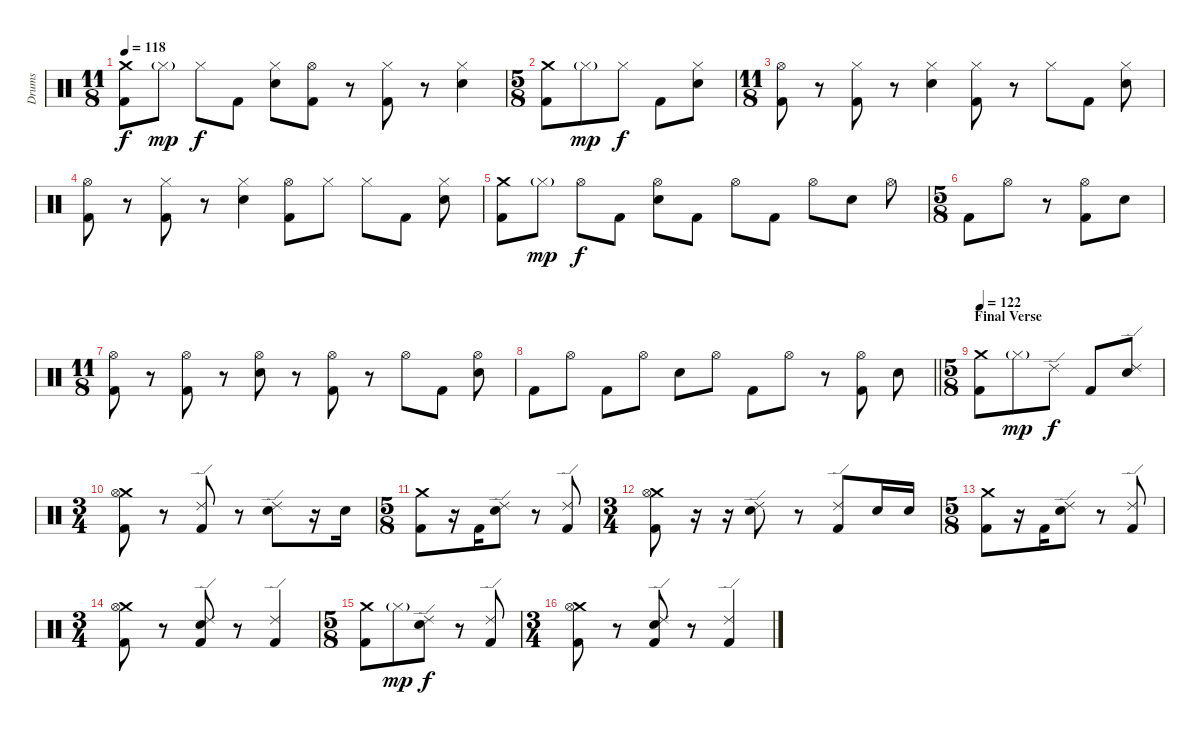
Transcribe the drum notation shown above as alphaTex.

\track ("Drums" "Drums") {instrument percussion}
\staff {score}
\articulation defaults
\ts (11 8)
\tempo 118
\clef neutral
\ks c
("Crash medium (hit)" "Kick (hit) 2").8{dy f} "Hi-Hat (closed)"{g}.8{dy mp} "Hi-Hat (closed)".8{dy f} "Kick (hit) 2".8 ("Hi-Hat (closed)" "Electric Snare (hit)").8 ("Hi-Hat (open)" "Kick (hit) 2").8 r.8 ("Hi-Hat (closed)" "Kick (hit) 2").8 r.8 ("Hi-Hat (closed)" "Electric Snare (hit)").4 |
\ts (5 8)
("Crash medium (hit)" "Kick (hit) 2").8 "Hi-Hat (closed)"{g}.8{dy mp} "Hi-Hat (closed)".8{dy f} "Kick (hit) 2".8 ("Hi-Hat (closed)" "Electric Snare (hit)").8 |
\ts (11 8)
("Hi-Hat (open)" "Kick (hit) 2").8 r.8 ("Hi-Hat (closed)" "Kick (hit) 2").8 r.8 ("Hi-Hat (closed)" "Electric Snare (hit)").4 ("Hi-Hat (closed)" "Kick (hit) 2").8 r.8 "Hi-Hat (closed)".8 "Kick (hit) 2".8 ("Hi-Hat (closed)" "Electric Snare (hit)").8 |
("Hi-Hat (open)" "Kick (hit) 2").8 r.8 ("Hi-Hat (closed)" "Kick (hit) 2").8 r.8 ("Hi-Hat (closed)" "Electric Snare (hit)").4 ("Hi-Hat (open)" "Kick (hit) 2").8 "Hi-Hat (closed)".8 "Hi-Hat (closed)".8 "Kick (hit) 2".8 ("Hi-Hat (closed)" "Electric Snare (hit)").8 |
("Crash medium (hit)" "Kick (hit) 2").8 "Hi-Hat (closed)"{g}.8{dy mp} "Hi-Hat (open)".8{dy f} "Kick (hit) 2".8 ("Hi-Hat (open)" "Electric Snare (hit)").8 "Kick (hit) 2".8 "Hi-Hat (open)".8 "Kick (hit) 2".8 "Hi-Hat (open)".8 "Electric Snare (hit)".8 "Hi-Hat (open)".8 |
\ts (5 8)
"Kick (hit) 2".8 "Hi-Hat (open)".8 r.8 ("Hi-Hat (open)" "Kick (hit) 2").8 "Electric Snare (hit)".8 |
\ts (11 8)
("Hi-Hat (open)" "Kick (hit) 2").8 r.8 ("Hi-Hat (open)" "Kick (hit) 2").8 r.8 ("Hi-Hat (open)" "Electric Snare (hit)").8 r.8 ("Hi-Hat (open)" "Kick (hit) 2").8 r.8 "Hi-Hat (open)".8 "Kick (hit) 2".8 ("Hi-Hat (open)" "Electric Snare (hit)").8 |
\barLineRight lightlight "Kick (hit) 2".8 "Hi-Hat (open)".8 "Kick (hit) 2".8 "Hi-Hat (open)".8 "Electric Snare (hit)".8 "Hi-Hat (open)".8 "Kick (hit) 2".8 "Hi-Hat (open)".8
r.8 ("Hi-Hat (open)" "Kick (hit) 2").8 "Electric Snare (hit)".8 |
\ts (5 8)
\section ("" "Final Verse")
\tempo 122
("Crash medium (hit)" "Kick (hit) 2").8 "Hi-Hat (closed)"{g}.8{dy mp} "Ride (edge) 2".8{dy f} "Kick (hit) 2".8 ("Ride (edge) 2" "Electric Snare (hit)").8 |
\ts (3 4)
("Crash medium (hit)" "Hi-Hat (open)" "Kick (hit) 2").8 r.8 ("Ride (edge) 2" "Kick (hit) 2").8 r.8 ("Ride (edge) 2" "Electric Snare (hit)").8 r.16 "Electric Snare (hit)".16 |
\ts (5 8)
("Crash medium (hit)" "Kick (hit) 2").8 r.16 "Kick (hit) 2".16 ("Ride (edge) 2" "Electric Snare (hit)").8 r.8 ("Ride (edge) 2" "Kick (hit) 2").8 |
\ts (3 4)
("Crash medium (hit)" "Hi-Hat (open)" "Kick (hit) 2").8 r.16 r.16 ("Ride (edge) 2" "Electric Snare (hit)").8 r.8 ("Ride (edge) 2" "Kick (hit) 2").8 "Electric Snare (hit)".16 "Electric Snare (hit)".16 |
\ts (5 8)
("Crash medium (hit)" "Kick (hit) 2").8 r.16 "Kick (hit) 2".16 ("Ride (edge) 2" "Electric Snare (hit)").8 r.8 ("Ride (edge) 2" "Kick (hit) 2").8 |
\ts (3 4)
("Crash medium (hit)" "Hi-Hat (open)" "Kick (hit) 2").8 r.8 ("Ride (edge) 2" "Electric Snare (hit)" "Kick (hit) 2").8 r.8 ("Ride (edge) 2" "Kick (hit) 2").4 |
\ts (5 8)
("Crash medium (hit)" "Kick (hit) 2").8 "Hi-Hat (closed)"{g}.8{dy mp} ("Ride (edge) 2" "Electric Snare (hit)").8{dy f} r.8 ("Ride (edge) 2" "Kick (hit) 2").8 |
\ts (3 4)
("Crash medium (hit)" "Hi-Hat (open)" "Kick (hit) 2").8 r.8 ("Ride (edge) 2" "Electric Snare (hit)" "Kick (hit) 2").8 r.8 ("Ride (edge) 2" "Kick (hit) 2").4
